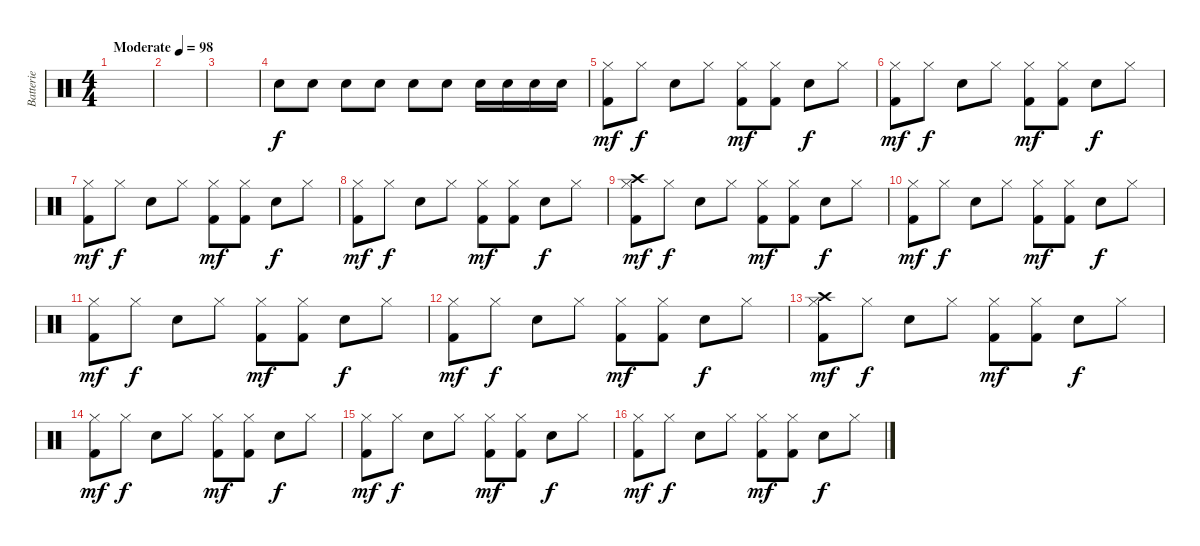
\track ("Batterie" "Batterie") {instrument percussion}
\staff {score}
\articulation defaults
\ts (4 4)
\tempo (98 "Moderate")
\clef neutral
\ks c
|
|
|
"Snare (hit) 2".8 "Snare (hit) 2".8 "Snare (hit) 2".8 "Snare (hit) 2".8 "Snare (hit) 2".8 "Snare (hit) 2".8 "Snare (hit) 2".16 "Snare (hit) 2".16 "Snare (hit) 2".16 "Snare (hit) 2".16 |
("Kick (hit) 2" "Hi-Hat (closed)").8{dy mf} "Hi-Hat (closed)".8{dy f} "Snare (hit) 2".8 "Hi-Hat (closed)".8 ("Kick (hit) 2" "Hi-Hat (closed)").8{dy mf} ("Kick (hit) 2" "Hi-Hat (closed)").8 "Snare (hit) 2".8{dy f} "Hi-Hat (closed)".8 |
("Kick (hit) 2" "Hi-Hat (closed)").8{dy mf} "Hi-Hat (closed)".8{dy f} "Snare (hit) 2".8 "Hi-Hat (closed)".8 ("Kick (hit) 2" "Hi-Hat (closed)").8{dy mf} ("Kick (hit) 2" "Hi-Hat (closed)").8 "Snare (hit) 2".8{dy f} "Hi-Hat (closed)".8 |
("Kick (hit) 2" "Hi-Hat (closed)").8{dy mf} "Hi-Hat (closed)".8{dy f} "Snare (hit) 2".8 "Hi-Hat (closed)".8 ("Kick (hit) 2" "Hi-Hat (closed)").8{dy mf} ("Kick (hit) 2" "Hi-Hat (closed)").8 "Snare (hit) 2".8{dy f} "Hi-Hat (closed)".8 |
("Kick (hit) 2" "Hi-Hat (closed)").8{dy mf} "Hi-Hat (closed)".8{dy f} "Snare (hit) 2".8 "Hi-Hat (closed)".8 ("Kick (hit) 2" "Hi-Hat (closed)").8{dy mf} ("Kick (hit) 2" "Hi-Hat (closed)").8 "Snare (hit) 2".8{dy f} "Hi-Hat (closed)".8 |
("Kick (hit) 2" "Crash high (hit)" "Hi-Hat (closed)").8{dy mf} "Hi-Hat (closed)".8{dy f} "Snare (hit) 2".8 "Hi-Hat (closed)".8 ("Kick (hit) 2" "Hi-Hat (closed)").8{dy mf} ("Kick (hit) 2" "Hi-Hat (closed)").8 "Snare (hit) 2".8{dy f} "Hi-Hat (closed)".8 |
("Kick (hit) 2" "Hi-Hat (closed)").8{dy mf} "Hi-Hat (closed)".8{dy f} "Snare (hit) 2".8 "Hi-Hat (closed)".8 ("Kick (hit) 2" "Hi-Hat (closed)").8{dy mf} ("Kick (hit) 2" "Hi-Hat (closed)").8 "Snare (hit) 2".8{dy f} "Hi-Hat (closed)".8 |
("Kick (hit) 2" "Hi-Hat (closed)").8{dy mf} "Hi-Hat (closed)".8{dy f} "Snare (hit) 2".8 "Hi-Hat (closed)".8 ("Kick (hit) 2" "Hi-Hat (closed)").8{dy mf} ("Kick (hit) 2" "Hi-Hat (closed)").8 "Snare (hit) 2".8{dy f} "Hi-Hat (closed)".8 |
("Kick (hit) 2" "Hi-Hat (closed)").8{dy mf} "Hi-Hat (closed)".8{dy f} "Snare (hit) 2".8 "Hi-Hat (closed)".8 ("Kick (hit) 2" "Hi-Hat (closed)").8{dy mf} ("Kick (hit) 2" "Hi-Hat (closed)").8 "Snare (hit) 2".8{dy f} "Hi-Hat (closed)".8 |
("Kick (hit) 2" "Crash high (hit)" "Hi-Hat (closed)").8{dy mf} "Hi-Hat (closed)".8{dy f} "Snare (hit) 2".8 "Hi-Hat (closed)".8 ("Kick (hit) 2" "Hi-Hat (closed)").8{dy mf} ("Kick (hit) 2" "Hi-Hat (closed)").8 "Snare (hit) 2".8{dy f} "Hi-Hat (closed)".8 |
("Kick (hit) 2" "Hi-Hat (closed)").8{dy mf} "Hi-Hat (closed)".8{dy f} "Snare (hit) 2".8 "Hi-Hat (closed)".8 ("Kick (hit) 2" "Hi-Hat (closed)").8{dy mf} ("Kick (hit) 2" "Hi-Hat (closed)").8 "Snare (hit) 2".8{dy f} "Hi-Hat (closed)".8 |
("Kick (hit) 2" "Hi-Hat (closed)").8{dy mf} "Hi-Hat (closed)".8{dy f} "Snare (hit) 2".8 "Hi-Hat (closed)".8 ("Kick (hit) 2" "Hi-Hat (closed)").8{dy mf} ("Kick (hit) 2" "Hi-Hat (closed)").8 "Snare (hit) 2".8{dy f} "Hi-Hat (closed)".8 |
("Kick (hit) 2" "Hi-Hat (closed)").8{dy mf} "Hi-Hat (closed)".8{dy f} "Snare (hit) 2".8 "Hi-Hat (closed)".8 ("Kick (hit) 2" "Hi-Hat (closed)").8{dy mf} ("Kick (hit) 2" "Hi-Hat (closed)").8 "Snare (hit) 2".8{dy f} "Hi-Hat (closed)".8
